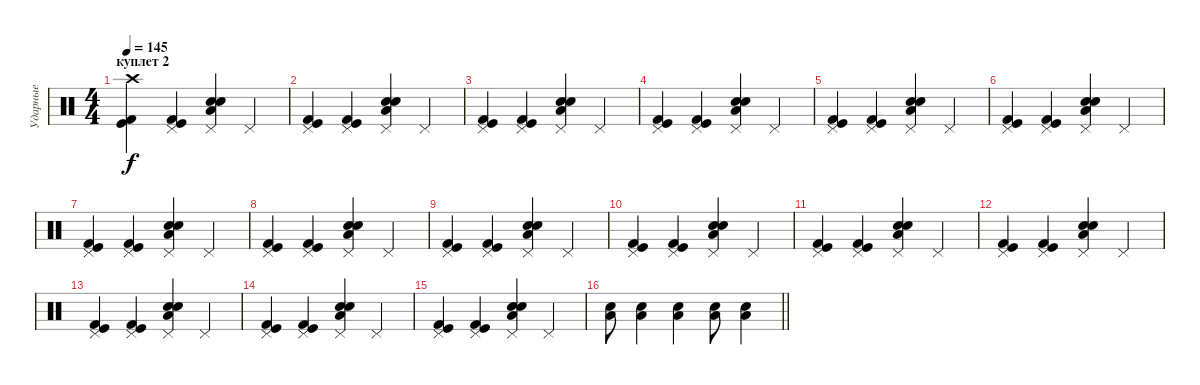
\track ("Ударные" "Ударные") {instrument percussion}
\staff {score}
\articulation defaults
\ts (4 4)
\section ("" "куплет 2")
\tempo 145
\clef neutral
\ks c
("Crash high (hit)" "Kick (hit) 2" "Kick (hit)").4{dy f} ("Pedal Hi-Hat (hit)" "Kick (hit) 2" "Kick (hit)").4 ("Pedal Hi-Hat (hit)" "Snare (hit) 2" "Electric Snare (hit)" "Low Floor Tom (hit)").4 "Pedal Hi-Hat (hit)".4 |
("Pedal Hi-Hat (hit)" "Kick (hit) 2" "Kick (hit)").4 ("Pedal Hi-Hat (hit)" "Kick (hit) 2" "Kick (hit)").4 ("Pedal Hi-Hat (hit)" "Snare (hit) 2" "Electric Snare (hit)" "Low Floor Tom (hit)").4 "Pedal Hi-Hat (hit)".4 |
("Pedal Hi-Hat (hit)" "Kick (hit) 2" "Kick (hit)").4 ("Pedal Hi-Hat (hit)" "Kick (hit) 2" "Kick (hit)").4 ("Pedal Hi-Hat (hit)" "Snare (hit) 2" "Electric Snare (hit)" "Low Floor Tom (hit)").4 "Pedal Hi-Hat (hit)".4 |
("Pedal Hi-Hat (hit)" "Kick (hit) 2" "Kick (hit)").4 ("Pedal Hi-Hat (hit)" "Kick (hit) 2" "Kick (hit)").4 ("Pedal Hi-Hat (hit)" "Snare (hit) 2" "Electric Snare (hit)" "Low Floor Tom (hit)").4 "Pedal Hi-Hat (hit)".4 |
("Pedal Hi-Hat (hit)" "Kick (hit) 2" "Kick (hit)").4 ("Pedal Hi-Hat (hit)" "Kick (hit) 2" "Kick (hit)").4 ("Pedal Hi-Hat (hit)" "Snare (hit) 2" "Electric Snare (hit)" "Low Floor Tom (hit)").4 "Pedal Hi-Hat (hit)".4 |
("Pedal Hi-Hat (hit)" "Kick (hit) 2" "Kick (hit)").4 ("Pedal Hi-Hat (hit)" "Kick (hit) 2" "Kick (hit)").4 ("Pedal Hi-Hat (hit)" "Snare (hit) 2" "Electric Snare (hit)" "Low Floor Tom (hit)").4 "Pedal Hi-Hat (hit)".4 |
("Pedal Hi-Hat (hit)" "Kick (hit) 2" "Kick (hit)").4 ("Pedal Hi-Hat (hit)" "Kick (hit) 2" "Kick (hit)").4 ("Pedal Hi-Hat (hit)" "Snare (hit) 2" "Electric Snare (hit)" "Low Floor Tom (hit)").4 "Pedal Hi-Hat (hit)".4 |
("Pedal Hi-Hat (hit)" "Kick (hit) 2" "Kick (hit)").4 ("Pedal Hi-Hat (hit)" "Kick (hit) 2" "Kick (hit)").4 ("Pedal Hi-Hat (hit)" "Snare (hit) 2" "Electric Snare (hit)" "Low Floor Tom (hit)").4 "Pedal Hi-Hat (hit)".4 |
("Pedal Hi-Hat (hit)" "Kick (hit) 2" "Kick (hit)").4 ("Pedal Hi-Hat (hit)" "Kick (hit) 2" "Kick (hit)").4 ("Pedal Hi-Hat (hit)" "Snare (hit) 2" "Electric Snare (hit)" "Low Floor Tom (hit)").4 "Pedal Hi-Hat (hit)".4 |
("Pedal Hi-Hat (hit)" "Kick (hit) 2" "Kick (hit)").4 ("Pedal Hi-Hat (hit)" "Kick (hit) 2" "Kick (hit)").4 ("Pedal Hi-Hat (hit)" "Snare (hit) 2" "Electric Snare (hit)" "Low Floor Tom (hit)").4 "Pedal Hi-Hat (hit)".4 |
("Pedal Hi-Hat (hit)" "Kick (hit) 2" "Kick (hit)").4 ("Pedal Hi-Hat (hit)" "Kick (hit) 2" "Kick (hit)").4 ("Pedal Hi-Hat (hit)" "Snare (hit) 2" "Electric Snare (hit)" "Low Floor Tom (hit)").4 "Pedal Hi-Hat (hit)".4 |
("Pedal Hi-Hat (hit)" "Kick (hit) 2" "Kick (hit)").4 ("Pedal Hi-Hat (hit)" "Kick (hit) 2" "Kick (hit)").4 ("Pedal Hi-Hat (hit)" "Snare (hit) 2" "Electric Snare (hit)" "Low Floor Tom (hit)").4 "Pedal Hi-Hat (hit)".4 |
("Pedal Hi-Hat (hit)" "Kick (hit) 2" "Kick (hit)").4 ("Pedal Hi-Hat (hit)" "Kick (hit) 2" "Kick (hit)").4 ("Pedal Hi-Hat (hit)" "Snare (hit) 2" "Electric Snare (hit)" "Low Floor Tom (hit)").4 "Pedal Hi-Hat (hit)".4 |
("Pedal Hi-Hat (hit)" "Kick (hit) 2" "Kick (hit)").4 ("Pedal Hi-Hat (hit)" "Kick (hit) 2" "Kick (hit)").4 ("Pedal Hi-Hat (hit)" "Snare (hit) 2" "Electric Snare (hit)" "Low Floor Tom (hit)").4 "Pedal Hi-Hat (hit)".4 |
("Pedal Hi-Hat (hit)" "Kick (hit) 2" "Kick (hit)").4 ("Pedal Hi-Hat (hit)" "Kick (hit) 2" "Kick (hit)").4 ("Pedal Hi-Hat (hit)" "Snare (hit) 2" "Electric Snare (hit)" "Low Floor Tom (hit)").4 "Pedal Hi-Hat (hit)".4 |
\barLineRight lightlight
("Electric Snare (hit)" "Low Floor Tom (hit)").8 ("Electric Snare (hit)" "Low Floor Tom (hit)").4 ("Electric Snare (hit)" "Low Floor Tom (hit)").4 ("Electric Snare (hit)" "Low Floor Tom (hit)").8 ("Electric Snare (hit)" "Low Floor Tom (hit)").4
